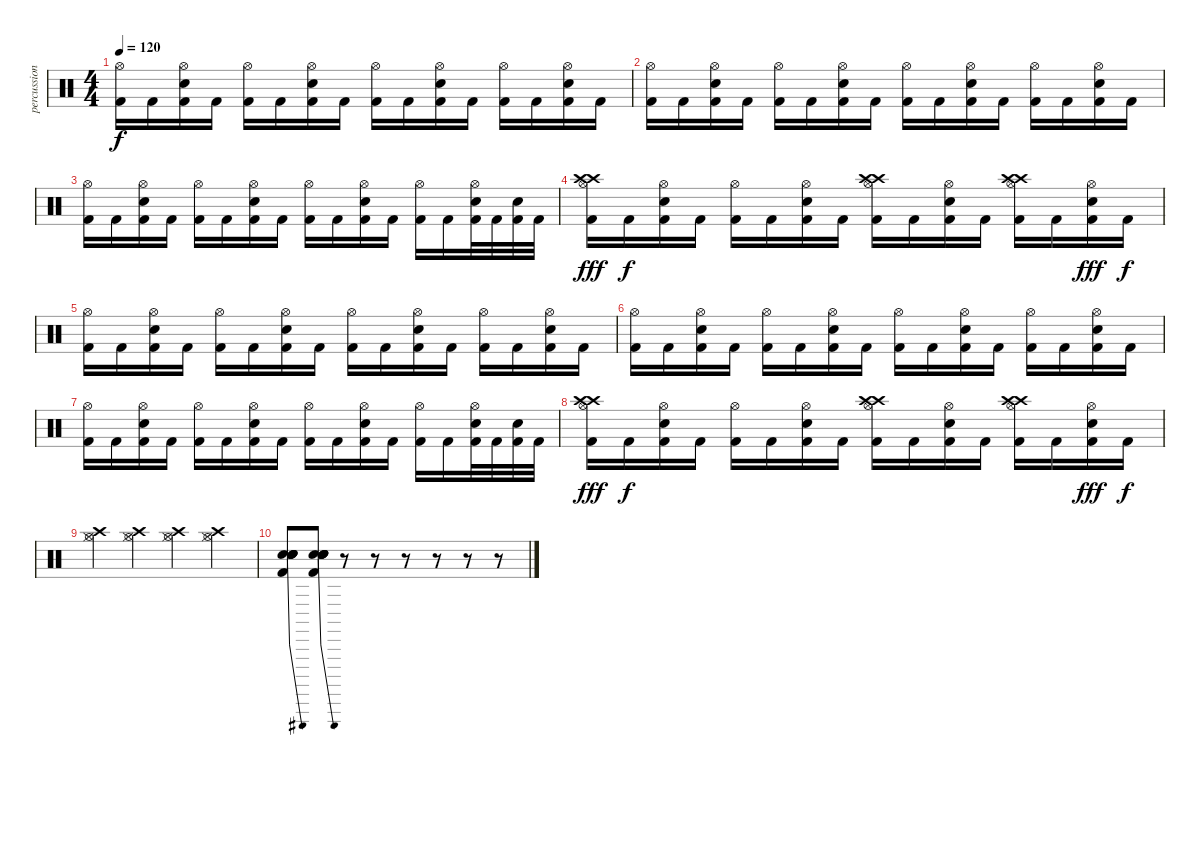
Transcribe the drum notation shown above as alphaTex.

\track ("percussions" "percussion") {instrument percussion}
\staff {score}
\articulation defaults
\ts (4 4)
\tempo 120
\clef neutral
\ks c
("Hi-Hat (open)" "Kick (hit) 2").16{dy f} "Kick (hit) 2".16 ("Hi-Hat (open)" "Electric Snare (hit)" "Kick (hit) 2").16 "Kick (hit) 2".16 ("Hi-Hat (open)" "Kick (hit) 2").16 "Kick (hit) 2".16 ("Hi-Hat (open)" "Electric Snare (hit)" "Kick (hit) 2").16 "Kick (hit) 2".16 ("Hi-Hat (open)" "Kick (hit) 2").16 "Kick (hit) 2".16 ("Hi-Hat (open)" "Electric Snare (hit)" "Kick (hit) 2").16 "Kick (hit) 2".16 ("Hi-Hat (open)" "Kick (hit) 2").16 "Kick (hit) 2".16 ("Hi-Hat (open)" "Electric Snare (hit)" "Kick (hit) 2").16 "Kick (hit) 2".16 |
("Hi-Hat (open)" "Kick (hit) 2").16 "Kick (hit) 2".16 ("Hi-Hat (open)" "Electric Snare (hit)" "Kick (hit) 2").16 "Kick (hit) 2".16 ("Hi-Hat (open)" "Kick (hit) 2").16 "Kick (hit) 2".16 ("Hi-Hat (open)" "Electric Snare (hit)" "Kick (hit) 2").16 "Kick (hit) 2".16 ("Hi-Hat (open)" "Kick (hit) 2").16 "Kick (hit) 2".16 ("Hi-Hat (open)" "Electric Snare (hit)" "Kick (hit) 2").16 "Kick (hit) 2".16 ("Hi-Hat (open)" "Kick (hit) 2").16 "Kick (hit) 2".16 ("Hi-Hat (open)" "Electric Snare (hit)" "Kick (hit) 2").16 "Kick (hit) 2".16 |
("Hi-Hat (open)" "Kick (hit) 2").16 "Kick (hit) 2".16 ("Hi-Hat (open)" "Electric Snare (hit)" "Kick (hit) 2").16 "Kick (hit) 2".16 ("Hi-Hat (open)" "Kick (hit) 2").16 "Kick (hit) 2".16 ("Hi-Hat (open)" "Electric Snare (hit)" "Kick (hit) 2").16 "Kick (hit) 2".16 ("Hi-Hat (open)" "Kick (hit) 2").16 "Kick (hit) 2".16 ("Hi-Hat (open)" "Electric Snare (hit)" "Kick (hit) 2").16 "Kick (hit) 2".16 ("Hi-Hat (open)" "Kick (hit) 2").16 "Kick (hit) 2".16 ("Hi-Hat (open)" "Electric Snare (hit)" "Kick (hit) 2").32 "Kick (hit) 2".32 ("Electric Snare (hit)" "Kick (hit) 2").32 "Kick (hit) 2".32 |
("Crash high (hit)" "Crash high (hit)" "Hi-Hat (open)" "Kick (hit) 2").16{dy fff} "Kick (hit) 2".16{dy f} ("Hi-Hat (open)" "Electric Snare (hit)" "Kick (hit) 2").16 "Kick (hit) 2".16 ("Hi-Hat (open)" "Kick (hit) 2").16 "Kick (hit) 2".16 ("Hi-Hat (open)" "Electric Snare (hit)" "Kick (hit) 2").16 "Kick (hit) 2".16 ("Crash high (hit)" "Crash high (hit)" "Hi-Hat (open)" "Kick (hit) 2").16 "Kick (hit) 2".16 ("Hi-Hat (open)" "Electric Snare (hit)" "Kick (hit) 2").16 "Kick (hit) 2".16 ("Crash high (hit)" "Crash high (hit)" "Hi-Hat (open)" "Kick (hit) 2").16 "Kick (hit) 2".16 ("Hi-Hat (open)" "Electric Snare (hit)" "Kick (hit) 2").16{dy fff} "Kick (hit) 2".16{dy f} |
("Hi-Hat (open)" "Kick (hit) 2").16 "Kick (hit) 2".16 ("Hi-Hat (open)" "Electric Snare (hit)" "Kick (hit) 2").16 "Kick (hit) 2".16 ("Hi-Hat (open)" "Kick (hit) 2").16 "Kick (hit) 2".16 ("Hi-Hat (open)" "Electric Snare (hit)" "Kick (hit) 2").16 "Kick (hit) 2".16 ("Hi-Hat (open)" "Kick (hit) 2").16 "Kick (hit) 2".16 ("Hi-Hat (open)" "Electric Snare (hit)" "Kick (hit) 2").16 "Kick (hit) 2".16 ("Hi-Hat (open)" "Kick (hit) 2").16 "Kick (hit) 2".16 ("Hi-Hat (open)" "Electric Snare (hit)" "Kick (hit) 2").16 "Kick (hit) 2".16 |
("Hi-Hat (open)" "Kick (hit) 2").16 "Kick (hit) 2".16 ("Hi-Hat (open)" "Electric Snare (hit)" "Kick (hit) 2").16 "Kick (hit) 2".16 ("Hi-Hat (open)" "Kick (hit) 2").16 "Kick (hit) 2".16 ("Hi-Hat (open)" "Electric Snare (hit)" "Kick (hit) 2").16 "Kick (hit) 2".16 ("Hi-Hat (open)" "Kick (hit) 2").16 "Kick (hit) 2".16 ("Hi-Hat (open)" "Electric Snare (hit)" "Kick (hit) 2").16 "Kick (hit) 2".16 ("Hi-Hat (open)" "Kick (hit) 2").16 "Kick (hit) 2".16 ("Hi-Hat (open)" "Electric Snare (hit)" "Kick (hit) 2").16 "Kick (hit) 2".16 |
("Hi-Hat (open)" "Kick (hit) 2").16 "Kick (hit) 2".16 ("Hi-Hat (open)" "Electric Snare (hit)" "Kick (hit) 2").16 "Kick (hit) 2".16 ("Hi-Hat (open)" "Kick (hit) 2").16 "Kick (hit) 2".16 ("Hi-Hat (open)" "Electric Snare (hit)" "Kick (hit) 2").16 "Kick (hit) 2".16 ("Hi-Hat (open)" "Kick (hit) 2").16 "Kick (hit) 2".16 ("Hi-Hat (open)" "Electric Snare (hit)" "Kick (hit) 2").16 "Kick (hit) 2".16 ("Hi-Hat (open)" "Kick (hit) 2").16 "Kick (hit) 2".16 ("Hi-Hat (open)" "Electric Snare (hit)" "Kick (hit) 2").32 "Kick (hit) 2".32 ("Electric Snare (hit)" "Kick (hit) 2").32 "Kick (hit) 2".32 |
("Crash high (hit)" "Crash high (hit)" "Hi-Hat (open)" "Kick (hit) 2").16{dy fff} "Kick (hit) 2".16{dy f} ("Hi-Hat (open)" "Electric Snare (hit)" "Kick (hit) 2").16 "Kick (hit) 2".16 ("Hi-Hat (open)" "Kick (hit) 2").16 "Kick (hit) 2".16 ("Hi-Hat (open)" "Electric Snare (hit)" "Kick (hit) 2").16 "Kick (hit) 2".16 ("Crash high (hit)" "Crash high (hit)" "Hi-Hat (open)" "Kick (hit) 2").16 "Kick (hit) 2".16 ("Hi-Hat (open)" "Electric Snare (hit)" "Kick (hit) 2").16 "Kick (hit) 2".16 ("Crash high (hit)" "Crash high (hit)" "Hi-Hat (open)" "Kick (hit) 2").16 "Kick (hit) 2".16 ("Hi-Hat (open)" "Electric Snare (hit)" "Kick (hit) 2").16{dy fff} "Kick (hit) 2".16{dy f} |
("Crash high (hit)" "Hi-Hat (closed)" "Hi-Hat (open)").4 ("Crash high (hit)" "Hi-Hat (closed)" "Hi-Hat (open)").4 ("Crash high (hit)" "Hi-Hat (closed)" "Hi-Hat (open)").4 ("Crash high (hit)" "Hi-Hat (closed)" "Hi-Hat (open)").4 |
("Electric Snare (hit)"{be (custom 0 12 20 12 40 0 60 0)} "Kick (hit) 2" "Electric Snare (hit)" "Electric Snare (hit)" "Electric Snare (hit)" "Electric Snare (hit)"{be (bend 0 0 60 12)}).8 ("Electric Snare (hit)"{be (custom 0 12 20 12 40 0 60 0)} "Kick (hit) 2" "Electric Snare (hit)" "Electric Snare (hit)" "Electric Snare (hit)" "Electric Snare (hit)"{be (bend 0 0 60 12)}).8 r.8 r.8 r.8 r.8 r.8 r.8
